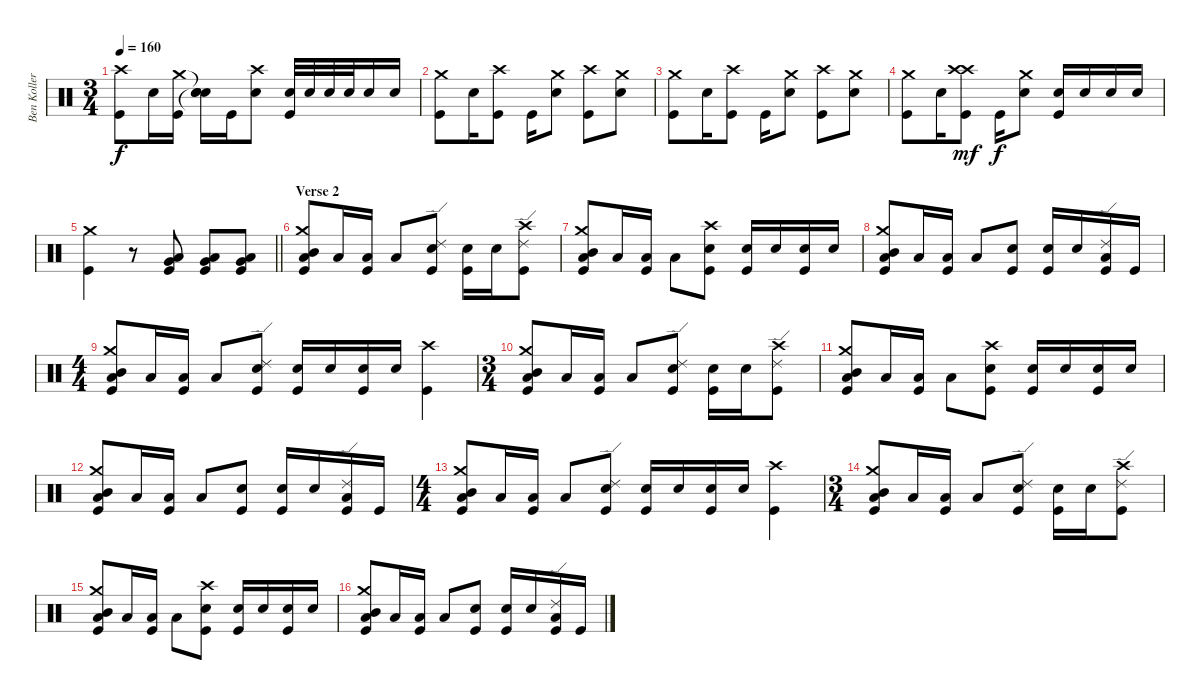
\track ("Ben Koller" "Ben Koller") {instrument percussion}
\staff {score}
\articulation defaults
\ts (3 4)
\tempo 160
\clef neutral
\ks c
("Crash high (hit)" "Kick (hit)").8{dy f} "Electric Snare (hit)".16 ("Crash medium (hit)" "Kick (hit)").16 ("Snare (hit)"{t} "Snare (hit)"{t} "Snare (hit)").16 "Kick (hit)".16 ("Crash high (hit)" "Electric Snare (hit)").8 ("Electric Snare (hit)" "Kick (hit)").32 "Electric Snare (hit)".32 "Electric Snare (hit)".32 "Electric Snare (hit)".32 "Electric Snare (hit)".16 "Electric Snare (hit)".16 |
("Crash medium (hit)" "Kick (hit)").8 "Electric Snare (hit)".16 ("Crash high (hit)" "Kick (hit)").8 "Kick (hit)".16 ("Crash medium (hit)" "Electric Snare (hit)").8 ("Crash high (hit)" "Kick (hit)").8 ("Crash medium (hit)" "Electric Snare (hit)").8 |
("Crash medium (hit)" "Kick (hit)").8 "Electric Snare (hit)".16 ("Crash high (hit)" "Kick (hit)").8 "Kick (hit)".16 ("Crash medium (hit)" "Electric Snare (hit)").8 ("Crash high (hit)" "Kick (hit)").8 ("Crash medium (hit)" "Electric Snare (hit)").8 |
("Crash medium (hit)" "Kick (hit)").8 "Electric Snare (hit)".16 ("Crash high (hit)" "Crash high (hit)" "Kick (hit)").8{dy mf} "Kick (hit)".16{dy f} ("Crash medium (hit)" "Electric Snare (hit)").8 ("Electric Snare (hit)" "Kick (hit)").16 "Electric Snare (hit)".16 "Electric Snare (hit)".16 "Electric Snare (hit)".16 |
\barLineRight lightlight
("Crash medium (hit)" "Kick (hit)").4 r.8 ("Low Tom (hit)" "Very Low Tom (hit)" "Kick (hit)").8 ("Low Tom (hit)" "Very Low Tom (hit)" "Kick (hit)").8 ("Low Tom (hit)" "Very Low Tom (hit)" "Kick (hit)").8 |
\section ("" "Verse 2")
("Crash medium (hit)" "Mid Tom (hit)" "Low Tom (hit)" "Kick (hit)").8 "Low Tom (hit)".16 ("Low Tom (hit)" "Kick (hit)").16 "Low Tom (hit)".8 ("Ride (edge) 2" "Electric Snare (hit)" "Kick (hit)").8 ("Electric Snare (hit)" "Kick (hit)").16 "Electric Snare (hit)".16 ("Crash high (hit)" "Ride (edge) 2" "Kick (hit)").8 |
("Crash medium (hit)" "Mid Tom (hit)" "Low Tom (hit)" "Kick (hit)").8 "Low Tom (hit)".16 ("Low Tom (hit)" "Kick (hit)").16 "Low Tom (hit)".8 ("Crash high (hit)" "Electric Snare (hit)" "Kick (hit)").8 ("Electric Snare (hit)" "Kick (hit)").16 "Electric Snare (hit)".16 ("Electric Snare (hit)" "Kick (hit)").16 "Electric Snare (hit)".16 |
("Crash medium (hit)" "Mid Tom (hit)" "Low Tom (hit)" "Kick (hit)").8 "Low Tom (hit)".16 ("Low Tom (hit)" "Kick (hit)").16 "Low Tom (hit)".8 ("Electric Snare (hit)" "Kick (hit)").8 ("Electric Snare (hit)" "Kick (hit)").16 "Electric Snare (hit)".16 ("Ride (edge) 2" "Low Tom (hit)" "Kick (hit)").16 "Kick (hit)".16 |
\ts (4 4)
("Crash medium (hit)" "Mid Tom (hit)" "Low Tom (hit)" "Kick (hit)").8 "Low Tom (hit)".16 ("Low Tom (hit)" "Kick (hit)").16 "Low Tom (hit)".8 ("Ride (edge) 2" "Electric Snare (hit)" "Kick (hit)").8 ("Electric Snare (hit)" "Kick (hit)").16 "Electric Snare (hit)".16 ("Electric Snare (hit)" "Kick (hit)").16 "Electric Snare (hit)".16 ("Crash high (hit)" "Kick (hit)").4 |
\ts (3 4)
("Crash medium (hit)" "Mid Tom (hit)" "Low Tom (hit)" "Kick (hit)").8 "Low Tom (hit)".16 ("Low Tom (hit)" "Kick (hit)").16 "Low Tom (hit)".8 ("Ride (edge) 2" "Electric Snare (hit)" "Kick (hit)").8 ("Electric Snare (hit)" "Kick (hit)").16 "Electric Snare (hit)".16 ("Crash high (hit)" "Ride (edge) 2" "Kick (hit)").8 |
("Crash medium (hit)" "Mid Tom (hit)" "Low Tom (hit)" "Kick (hit)").8 "Low Tom (hit)".16 ("Low Tom (hit)" "Kick (hit)").16 "Low Tom (hit)".8 ("Crash high (hit)" "Electric Snare (hit)" "Kick (hit)").8 ("Electric Snare (hit)" "Kick (hit)").16 "Electric Snare (hit)".16 ("Electric Snare (hit)" "Kick (hit)").16 "Electric Snare (hit)".16 |
("Crash medium (hit)" "Mid Tom (hit)" "Low Tom (hit)" "Kick (hit)").8 "Low Tom (hit)".16 ("Low Tom (hit)" "Kick (hit)").16 "Low Tom (hit)".8 ("Electric Snare (hit)" "Kick (hit)").8 ("Electric Snare (hit)" "Kick (hit)").16 "Electric Snare (hit)".16 ("Ride (edge) 2" "Low Tom (hit)" "Kick (hit)").16 "Kick (hit)".16 |
\ts (4 4)
("Crash medium (hit)" "Mid Tom (hit)" "Low Tom (hit)" "Kick (hit)").8 "Low Tom (hit)".16 ("Low Tom (hit)" "Kick (hit)").16 "Low Tom (hit)".8 ("Ride (edge) 2" "Electric Snare (hit)" "Kick (hit)").8 ("Electric Snare (hit)" "Kick (hit)").16 "Electric Snare (hit)".16 ("Electric Snare (hit)" "Kick (hit)").16 "Electric Snare (hit)".16 ("Crash high (hit)" "Kick (hit)").4 |
\ts (3 4)
("Crash medium (hit)" "Mid Tom (hit)" "Low Tom (hit)" "Kick (hit)").8 "Low Tom (hit)".16 ("Low Tom (hit)" "Kick (hit)").16 "Low Tom (hit)".8 ("Ride (edge) 2" "Electric Snare (hit)" "Kick (hit)").8 ("Electric Snare (hit)" "Kick (hit)").16 "Electric Snare (hit)".16 ("Crash high (hit)" "Ride (edge) 2" "Kick (hit)").8 |
("Crash medium (hit)" "Mid Tom (hit)" "Low Tom (hit)" "Kick (hit)").8 "Low Tom (hit)".16 ("Low Tom (hit)" "Kick (hit)").16 "Low Tom (hit)".8 ("Crash high (hit)" "Electric Snare (hit)" "Kick (hit)").8 ("Electric Snare (hit)" "Kick (hit)").16 "Electric Snare (hit)".16 ("Electric Snare (hit)" "Kick (hit)").16 "Electric Snare (hit)".16 |
("Crash medium (hit)" "Mid Tom (hit)" "Low Tom (hit)" "Kick (hit)").8 "Low Tom (hit)".16 ("Low Tom (hit)" "Kick (hit)").16 "Low Tom (hit)".8 ("Electric Snare (hit)" "Kick (hit)").8 ("Electric Snare (hit)" "Kick (hit)").16 "Electric Snare (hit)".16 ("Ride (edge) 2" "Low Tom (hit)" "Kick (hit)").16 "Kick (hit)".16
